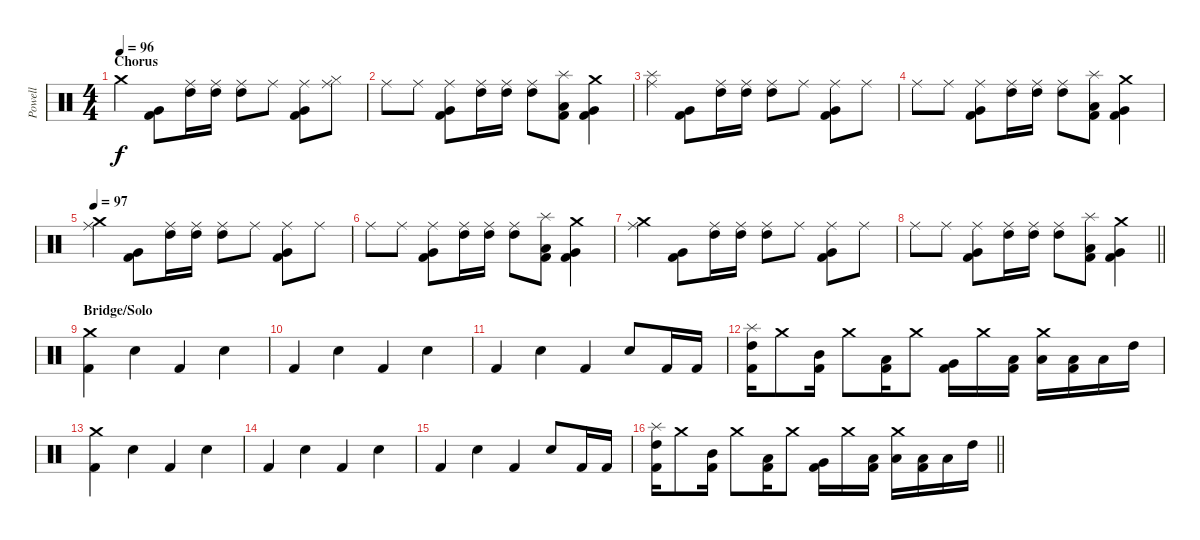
\track ("Powell" "Powell") {instrument percussion}
\staff {score}
\articulation defaults
\ts (4 4)
\section ("" "Chorus")
\tempo 96
\clef neutral
\ks c "Crash medium (hit)".4{dy f}
("Very Low Tom (hit)" "Kick (hit) 2").8 ("Ride (middle)" "High Tom (hit)").16 ("Ride (middle)" "High Tom (hit)").16 ("Ride (middle)" "High Tom (hit)").8 "Ride (middle)".8 ("Ride (middle)" "Very Low Tom (hit)" "Kick (hit) 2").8 ("Ride (middle)" "Hi-Hat (closed)").8 |
"Ride (middle)".8 "Ride (middle)".8 ("Ride (middle)" "Very Low Tom (hit)" "Kick (hit) 2").8 ("Ride (middle)" "High Tom (hit)").16 ("Ride (middle)" "High Tom (hit)").16 ("Ride (middle)" "High Tom (hit)").8 ("Splash (hit)" "Low Tom (hit)" "Kick (hit) 2").8 ("Crash medium (hit)" "Very Low Tom (hit)" "Kick (hit) 2").4 |
("Splash (hit)" "Ride (middle)").4 ("Very Low Tom (hit)" "Kick (hit) 2").8 ("Ride (middle)" "High Tom (hit)").16 ("Ride (middle)" "High Tom (hit)").16 ("Ride (middle)" "High Tom (hit)").8 "Ride (middle)".8 ("Ride (middle)" "Very Low Tom (hit)" "Kick (hit) 2").8 "Ride (middle)".8 |
"Ride (middle)".8 "Ride (middle)".8 ("Ride (middle)" "Very Low Tom (hit)" "Kick (hit) 2").8 ("Ride (middle)" "High Tom (hit)").16 ("Ride (middle)" "High Tom (hit)").16 ("Ride (middle)" "High Tom (hit)").8 ("Splash (hit)" "Low Tom (hit)" "Kick (hit) 2").8 ("Crash medium (hit)" "Very Low Tom (hit)" "Kick (hit) 2").4 |
\tempo 97
("Crash medium (hit)" "Ride (middle)").4 ("Very Low Tom (hit)" "Kick (hit) 2").8 ("Ride (middle)" "High Tom (hit)").16 ("Ride (middle)" "High Tom (hit)").16 ("Ride (middle)" "High Tom (hit)").8 "Ride (middle)".8 ("Ride (middle)" "Very Low Tom (hit)" "Kick (hit) 2").8 "Ride (middle)".8 |
"Ride (middle)".8 "Ride (middle)".8 ("Ride (middle)" "Very Low Tom (hit)" "Kick (hit) 2").8 ("Ride (middle)" "High Tom (hit)").16 ("Ride (middle)" "High Tom (hit)").16 ("Ride (middle)" "High Tom (hit)").8 ("Splash (hit)" "Low Tom (hit)" "Kick (hit) 2").8 ("Crash medium (hit)" "Very Low Tom (hit)" "Kick (hit) 2").4 |
("Crash medium (hit)" "Ride (middle)").4 ("Very Low Tom (hit)" "Kick (hit) 2").8 ("Ride (middle)" "High Tom (hit)").16 ("Ride (middle)" "High Tom (hit)").16 ("Ride (middle)" "High Tom (hit)").8 "Ride (middle)".8 ("Ride (middle)" "Very Low Tom (hit)" "Kick (hit) 2").8 "Ride (middle)".8 |
\barLineRight lightlight "Ride (middle)".8 "Ride (middle)".8
("Ride (middle)" "Very Low Tom (hit)" "Kick (hit) 2").8 ("Ride (middle)" "High Tom (hit)").16 ("Ride (middle)" "High Tom (hit)").16 ("Ride (middle)" "High Tom (hit)").8 ("Splash (hit)" "Low Tom (hit)" "Kick (hit) 2").8 ("Crash medium (hit)" "Very Low Tom (hit)" "Kick (hit) 2").4 |
\section ("" "Bridge/Solo")
("Crash medium (hit)" "Kick (hit) 2").4 "Snare (hit) 2".4 "Kick (hit) 2".4 "Snare (hit) 2".4 |
"Kick (hit) 2".4 "Snare (hit) 2".4 "Kick (hit) 2".4 "Snare (hit) 2".4 |
"Kick (hit) 2".4 "Snare (hit) 2".4 "Kick (hit) 2".4 "Snare (hit) 2".8 "Kick (hit) 2".16 "Kick (hit) 2".16 |
("Splash (hit)" "High Tom (hit)" "Kick (hit) 2").16 "Crash medium (hit)".8 ("Mid Tom (hit)" "Kick (hit) 2").16 "Crash medium (hit)".8 ("Low Tom (hit)" "Kick (hit) 2").16 "Crash medium (hit)".8 ("Very Low Tom (hit)" "Kick (hit) 2").16 "Crash medium (hit)".16 ("Low Floor Tom (hit)" "Kick (hit) 2").16 ("Crash medium (hit)" "Low Floor Tom (hit)").16 ("Low Tom (hit)" "Kick (hit) 2").16 "Low Tom (hit)".16 "High Tom (hit)".16 |
("Crash medium (hit)" "Kick (hit) 2").4 "Snare (hit) 2".4 "Kick (hit) 2".4 "Snare (hit) 2".4 |
"Kick (hit) 2".4 "Snare (hit) 2".4 "Kick (hit) 2".4 "Snare (hit) 2".4 |
"Kick (hit) 2".4 "Snare (hit) 2".4 "Kick (hit) 2".4 "Snare (hit) 2".8 "Kick (hit) 2".16 "Kick (hit) 2".16 |
\barLineRight lightlight
("Splash (hit)" "High Tom (hit)" "Kick (hit) 2").16 "Crash medium (hit)".8 ("Mid Tom (hit)" "Kick (hit) 2").16 "Crash medium (hit)".8 ("Low Tom (hit)" "Kick (hit) 2").16 "Crash medium (hit)".8 ("Very Low Tom (hit)" "Kick (hit) 2").16 "Crash medium (hit)".16 ("Low Floor Tom (hit)" "Kick (hit) 2").16 ("Crash medium (hit)" "Low Floor Tom (hit)").16 ("Low Tom (hit)" "Kick (hit) 2").16 "Low Tom (hit)".16 "High Tom (hit)".16
